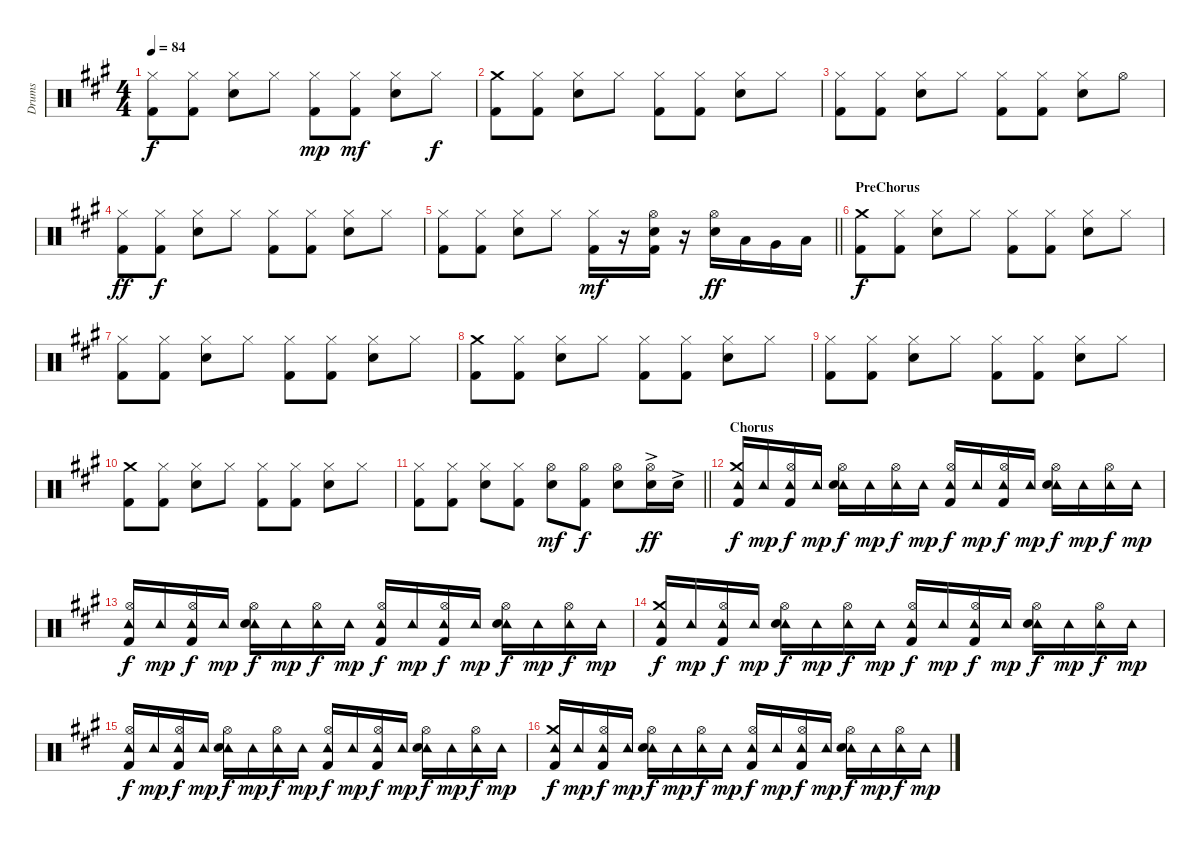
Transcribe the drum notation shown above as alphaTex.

\track ("Drums" "Drums") {instrument percussion}
\staff {score}
\articulation defaults
\ts (4 4)
\tempo 84
\clef neutral
\ks a
("Hi-Hat (closed)" "Kick (hit) 2").8{dy f} ("Hi-Hat (closed)" "Kick (hit) 2").8 ("Hi-Hat (closed)" "Electric Snare (hit)").8 "Hi-Hat (closed)".8 ("Hi-Hat (closed)" "Kick (hit) 2").8{dy mp} ("Hi-Hat (closed)" "Kick (hit) 2").8{dy mf} ("Hi-Hat (closed)" "Electric Snare (hit)").8 "Hi-Hat (closed)".8{dy f} |
("Crash medium (hit)" "Kick (hit) 2").8 ("Hi-Hat (closed)" "Kick (hit) 2").8 ("Hi-Hat (closed)" "Electric Snare (hit)").8 "Hi-Hat (closed)".8 ("Hi-Hat (closed)" "Kick (hit) 2").8 ("Hi-Hat (closed)" "Kick (hit) 2").8 ("Hi-Hat (closed)" "Electric Snare (hit)").8 "Hi-Hat (closed)".8 |
("Hi-Hat (closed)" "Kick (hit) 2").8 ("Hi-Hat (closed)" "Kick (hit) 2").8 ("Hi-Hat (closed)" "Electric Snare (hit)").8 "Hi-Hat (closed)".8 ("Hi-Hat (closed)" "Kick (hit) 2").8 ("Hi-Hat (closed)" "Kick (hit) 2").8 ("Hi-Hat (closed)" "Electric Snare (hit)").8 "Hi-Hat (open)".8 |
("Hi-Hat (closed)" "Kick (hit) 2").8{dy ff} ("Hi-Hat (closed)" "Kick (hit) 2").8{dy f} ("Hi-Hat (closed)" "Electric Snare (hit)").8 "Hi-Hat (closed)".8 ("Hi-Hat (closed)" "Kick (hit) 2").8 ("Hi-Hat (closed)" "Kick (hit) 2").8 ("Hi-Hat (closed)" "Electric Snare (hit)").8 "Hi-Hat (closed)".8 |
\barLineRight lightlight
("Hi-Hat (closed)" "Kick (hit) 2").8 ("Hi-Hat (closed)" "Kick (hit) 2").8 ("Hi-Hat (closed)" "Electric Snare (hit)").8 "Hi-Hat (closed)".8 ("Hi-Hat (closed)" "Kick (hit) 2").16{dy mf} r.16 ("Hi-Hat (open)" "Electric Snare (hit)" "Kick (hit) 2").16 r.16 ("Hi-Hat (open)" "Electric Snare (hit)").16{dy ff} "Low Tom (hit)".16 "Very Low Tom (hit)".16 "Low Floor Tom (hit)".16 |
\section ("" "PreChorus")
("Crash medium (hit)" "Kick (hit) 2").8{dy f} ("Hi-Hat (closed)" "Kick (hit) 2").8 ("Hi-Hat (closed)" "Electric Snare (hit)").8 "Hi-Hat (closed)".8 ("Hi-Hat (closed)" "Kick (hit) 2").8 ("Hi-Hat (closed)" "Kick (hit) 2").8 ("Hi-Hat (closed)" "Electric Snare (hit)").8 "Hi-Hat (closed)".8 |
("Hi-Hat (closed)" "Kick (hit) 2").8 ("Hi-Hat (closed)" "Kick (hit) 2").8 ("Hi-Hat (closed)" "Electric Snare (hit)").8 "Hi-Hat (closed)".8 ("Hi-Hat (closed)" "Kick (hit) 2").8 ("Hi-Hat (closed)" "Kick (hit) 2").8 ("Hi-Hat (closed)" "Electric Snare (hit)").8 "Hi-Hat (closed)".8 |
("Crash medium (hit)" "Kick (hit) 2").8 ("Hi-Hat (closed)" "Kick (hit) 2").8 ("Hi-Hat (closed)" "Electric Snare (hit)").8 "Hi-Hat (closed)".8 ("Hi-Hat (closed)" "Kick (hit) 2").8 ("Hi-Hat (closed)" "Kick (hit) 2").8 ("Hi-Hat (closed)" "Electric Snare (hit)").8 "Hi-Hat (closed)".8 |
("Hi-Hat (closed)" "Kick (hit) 2").8 ("Hi-Hat (closed)" "Kick (hit) 2").8 ("Hi-Hat (closed)" "Electric Snare (hit)").8 "Hi-Hat (closed)".8 ("Hi-Hat (closed)" "Kick (hit) 2").8 ("Hi-Hat (closed)" "Kick (hit) 2").8 ("Hi-Hat (closed)" "Electric Snare (hit)").8 "Hi-Hat (closed)".8 |
("Crash medium (hit)" "Kick (hit) 2").8 ("Hi-Hat (closed)" "Kick (hit) 2").8 ("Hi-Hat (closed)" "Electric Snare (hit)").8 "Hi-Hat (closed)".8 ("Hi-Hat (closed)" "Kick (hit) 2").8 ("Hi-Hat (closed)" "Kick (hit) 2").8 ("Hi-Hat (closed)" "Electric Snare (hit)").8 "Hi-Hat (closed)".8 |
\barLineRight lightlight
("Hi-Hat (closed)" "Kick (hit) 2").8 ("Hi-Hat (closed)" "Kick (hit) 2").8 ("Hi-Hat (closed)" "Electric Snare (hit)").8 ("Hi-Hat (closed)" "Kick (hit) 2").8 ("Hi-Hat (open)" "Electric Snare (hit)").8{dy mf} ("Hi-Hat (open)" "Kick (hit) 2").8{dy f} ("Hi-Hat (open)" "Electric Snare (hit)").8 ("Hi-Hat (open)" "Electric Snare (hit)"{ac}).16{dy ff} "Electric Snare (hit)"{ac}.16 |
\section ("" "Chorus")
("Crash medium (hit)" "Tambourine (hit)" "Kick (hit) 2").16{dy f} "Tambourine (hit)".16{dy mp} ("Hi-Hat (open)" "Tambourine (hit)" "Kick (hit) 2").16{dy f} "Tambourine (hit)".16{dy mp} ("Hi-Hat (open)" "Tambourine (hit)" "Electric Snare (hit)").16{dy f} "Tambourine (hit)".16{dy mp} ("Hi-Hat (open)" "Tambourine (hit)").16{dy f} "Tambourine (hit)".16{dy mp} ("Hi-Hat (open)" "Tambourine (hit)" "Kick (hit) 2").16{dy f} "Tambourine (hit)".16{dy mp} ("Hi-Hat (open)" "Tambourine (hit)" "Kick (hit) 2").16{dy f} "Tambourine (hit)".16{dy mp} ("Hi-Hat (open)" "Tambourine (hit)" "Electric Snare (hit)").16{dy f} "Tambourine (hit)".16{dy mp} ("Hi-Hat (open)" "Tambourine (hit)").16{dy f} "Tambourine (hit)".16{dy mp} |
("Hi-Hat (open)" "Tambourine (hit)" "Kick (hit) 2").16{dy f} "Tambourine (hit)".16{dy mp} ("Hi-Hat (open)" "Tambourine (hit)" "Kick (hit) 2").16{dy f} "Tambourine (hit)".16{dy mp} ("Hi-Hat (open)" "Tambourine (hit)" "Electric Snare (hit)").16{dy f} "Tambourine (hit)".16{dy mp} ("Hi-Hat (open)" "Tambourine (hit)").16{dy f} "Tambourine (hit)".16{dy mp} ("Hi-Hat (open)" "Tambourine (hit)" "Kick (hit) 2").16{dy f} "Tambourine (hit)".16{dy mp} ("Hi-Hat (open)" "Tambourine (hit)" "Kick (hit) 2").16{dy f} "Tambourine (hit)".16{dy mp} ("Hi-Hat (open)" "Tambourine (hit)" "Electric Snare (hit)").16{dy f} "Tambourine (hit)".16{dy mp} ("Hi-Hat (open)" "Tambourine (hit)").16{dy f} "Tambourine (hit)".16{dy mp} |
("Crash medium (hit)" "Tambourine (hit)" "Kick (hit) 2").16{dy f} "Tambourine (hit)".16{dy mp} ("Hi-Hat (open)" "Tambourine (hit)" "Kick (hit) 2").16{dy f} "Tambourine (hit)".16{dy mp} ("Hi-Hat (open)" "Tambourine (hit)" "Electric Snare (hit)").16{dy f} "Tambourine (hit)".16{dy mp} ("Hi-Hat (open)" "Tambourine (hit)").16{dy f} "Tambourine (hit)".16{dy mp} ("Hi-Hat (open)" "Tambourine (hit)" "Kick (hit) 2").16{dy f} "Tambourine (hit)".16{dy mp} ("Hi-Hat (open)" "Tambourine (hit)" "Kick (hit) 2").16{dy f} "Tambourine (hit)".16{dy mp} ("Hi-Hat (open)" "Tambourine (hit)" "Electric Snare (hit)").16{dy f} "Tambourine (hit)".16{dy mp} ("Hi-Hat (open)" "Tambourine (hit)").16{dy f} "Tambourine (hit)".16{dy mp} |
("Hi-Hat (open)" "Tambourine (hit)" "Kick (hit) 2").16{dy f} "Tambourine (hit)".16{dy mp} ("Hi-Hat (open)" "Tambourine (hit)" "Kick (hit) 2").16{dy f} "Tambourine (hit)".16{dy mp} ("Hi-Hat (open)" "Tambourine (hit)" "Electric Snare (hit)").16{dy f} "Tambourine (hit)".16{dy mp} ("Hi-Hat (open)" "Tambourine (hit)").16{dy f} "Tambourine (hit)".16{dy mp} ("Hi-Hat (open)" "Tambourine (hit)" "Kick (hit) 2").16{dy f} "Tambourine (hit)".16{dy mp} ("Hi-Hat (open)" "Tambourine (hit)" "Kick (hit) 2").16{dy f} "Tambourine (hit)".16{dy mp} ("Hi-Hat (open)" "Tambourine (hit)" "Electric Snare (hit)").16{dy f} "Tambourine (hit)".16{dy mp} ("Hi-Hat (open)" "Tambourine (hit)").16{dy f} "Tambourine (hit)".16{dy mp} |
("Crash medium (hit)" "Tambourine (hit)" "Kick (hit) 2").16{dy f} "Tambourine (hit)".16{dy mp} ("Hi-Hat (open)" "Tambourine (hit)" "Kick (hit) 2").16{dy f} "Tambourine (hit)".16{dy mp} ("Hi-Hat (open)" "Tambourine (hit)" "Electric Snare (hit)").16{dy f} "Tambourine (hit)".16{dy mp} ("Hi-Hat (open)" "Tambourine (hit)").16{dy f} "Tambourine (hit)".16{dy mp} ("Hi-Hat (open)" "Tambourine (hit)" "Kick (hit) 2").16{dy f} "Tambourine (hit)".16{dy mp} ("Hi-Hat (open)" "Tambourine (hit)" "Kick (hit) 2").16{dy f} "Tambourine (hit)".16{dy mp} ("Hi-Hat (open)" "Tambourine (hit)" "Electric Snare (hit)").16{dy f} "Tambourine (hit)".16{dy mp} ("Hi-Hat (open)" "Tambourine (hit)").16{dy f} "Tambourine (hit)".16{dy mp}
